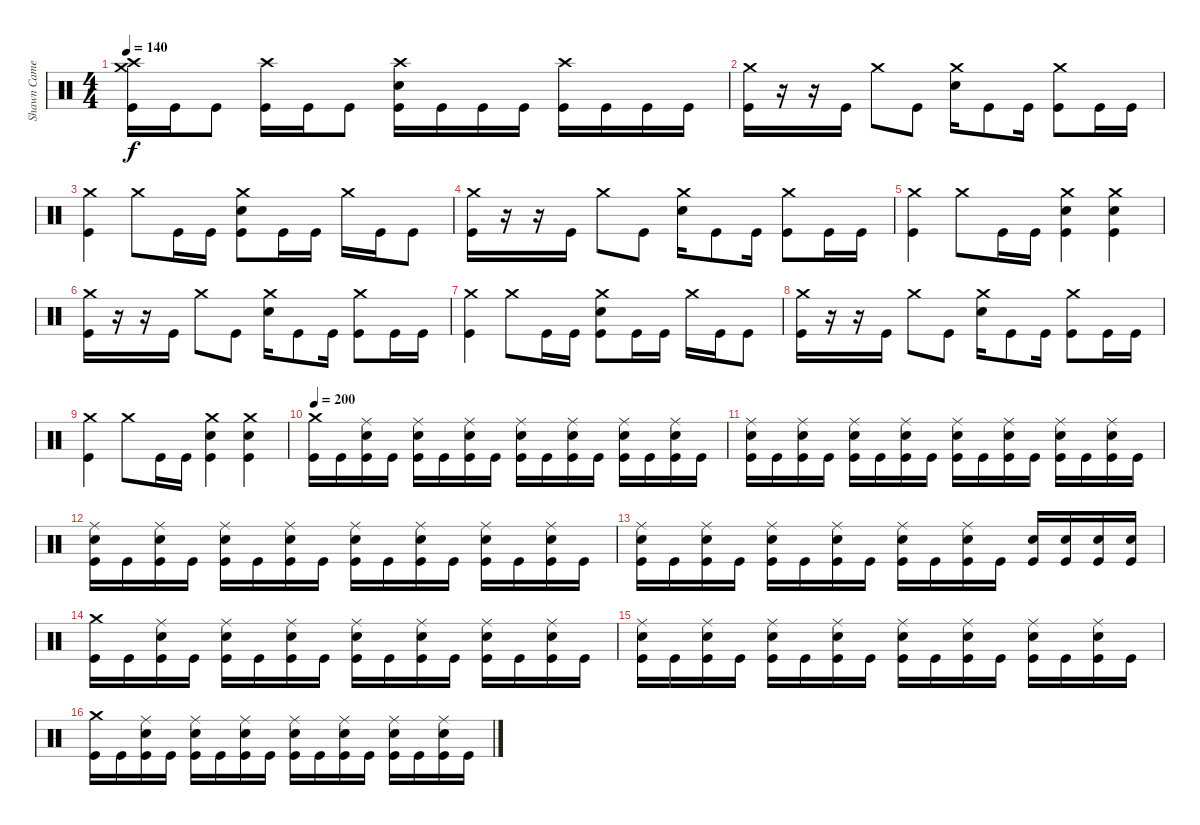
\track ("Shawn Cameron" "Shawn Came") {instrument percussion}
\staff {score}
\articulation defaults
\ts (4 4)
\tempo 140
\clef neutral
\ks c
("Crash medium (hit)" "Crash high (hit)" "Kick (hit)").16{dy f} "Kick (hit)".16 "Kick (hit)".8 ("Crash high (hit)" "Kick (hit)").16 "Kick (hit)".16 "Kick (hit)".8 ("Crash high (hit)" "Snare (hit) 2" "Kick (hit)").16 "Kick (hit)".16 "Kick (hit)".16 "Kick (hit)".16 ("Crash high (hit)" "Kick (hit)").16 "Kick (hit)".16 "Kick (hit)".16 "Kick (hit)".16 |
("Crash medium (hit)" "Kick (hit)").16 r.16 r.16 "Kick (hit)".16 "Crash medium (hit)".8 "Kick (hit)".8 ("Crash medium (hit)" "Snare (hit) 2").16 "Kick (hit)".8 "Kick (hit)".16 ("Crash medium (hit)" "Kick (hit)").8 "Kick (hit)".16 "Kick (hit)".16 |
("Crash medium (hit)" "Kick (hit)").4 "Crash medium (hit)".8 "Kick (hit)".16 "Kick (hit)".16 ("Crash medium (hit)" "Snare (hit) 2" "Kick (hit)").8 "Kick (hit)".16 "Kick (hit)".16 "Crash medium (hit)".16 "Kick (hit)".16 "Kick (hit)".8 |
("Crash medium (hit)" "Kick (hit)").16 r.16 r.16 "Kick (hit)".16 "Crash medium (hit)".8 "Kick (hit)".8 ("Crash medium (hit)" "Snare (hit) 2").16 "Kick (hit)".8 "Kick (hit)".16 ("Crash medium (hit)" "Kick (hit)").8 "Kick (hit)".16 "Kick (hit)".16 |
("Crash medium (hit)" "Kick (hit)").4 "Crash medium (hit)".8 "Kick (hit)".16 "Kick (hit)".16 ("Crash medium (hit)" "Snare (hit) 2" "Kick (hit)").4 ("Crash medium (hit)" "Snare (hit) 2" "Kick (hit)").4 |
("Crash medium (hit)" "Kick (hit)").16 r.16 r.16 "Kick (hit)".16 "Crash medium (hit)".8 "Kick (hit)".8 ("Crash medium (hit)" "Snare (hit) 2").16 "Kick (hit)".8 "Kick (hit)".16 ("Crash medium (hit)" "Kick (hit)").8 "Kick (hit)".16 "Kick (hit)".16 |
("Crash medium (hit)" "Kick (hit)").4 "Crash medium (hit)".8 "Kick (hit)".16 "Kick (hit)".16 ("Crash medium (hit)" "Snare (hit) 2" "Kick (hit)").8 "Kick (hit)".16 "Kick (hit)".16 "Crash medium (hit)".16 "Kick (hit)".16 "Kick (hit)".8 |
("Crash medium (hit)" "Kick (hit)").16 r.16 r.16 "Kick (hit)".16 "Crash medium (hit)".8 "Kick (hit)".8 ("Crash medium (hit)" "Snare (hit) 2").16 "Kick (hit)".8 "Kick (hit)".16 ("Crash medium (hit)" "Kick (hit)").8 "Kick (hit)".16 "Kick (hit)".16 |
("Crash medium (hit)" "Kick (hit)").4 "Crash medium (hit)".8 "Kick (hit)".16 "Kick (hit)".16 ("Crash medium (hit)" "Snare (hit) 2" "Kick (hit)").4 ("Crash medium (hit)" "Snare (hit) 2" "Kick (hit)").4 |
\tempo 200
("Crash medium (hit)" "Kick (hit)").16 "Kick (hit)".16 ("Ride (middle)" "Snare (hit) 2" "Kick (hit)").16 "Kick (hit)".16 ("Ride (middle)" "Snare (hit) 2" "Kick (hit)").16 "Kick (hit)".16 ("Ride (middle)" "Snare (hit) 2" "Kick (hit)").16 "Kick (hit)".16 ("Ride (middle)" "Snare (hit) 2" "Kick (hit)").16 "Kick (hit)".16 ("Ride (middle)" "Snare (hit) 2" "Kick (hit)").16 "Kick (hit)".16 ("Ride (middle)" "Snare (hit) 2" "Kick (hit)").16 "Kick (hit)".16 ("Ride (middle)" "Snare (hit) 2" "Kick (hit)").16 "Kick (hit)".16 |
("Ride (middle)" "Snare (hit) 2" "Kick (hit)").16 "Kick (hit)".16 ("Ride (middle)" "Snare (hit) 2" "Kick (hit)").16 "Kick (hit)".16 ("Ride (middle)" "Snare (hit) 2" "Kick (hit)").16 "Kick (hit)".16 ("Ride (middle)" "Snare (hit) 2" "Kick (hit)").16 "Kick (hit)".16 ("Ride (middle)" "Snare (hit) 2" "Kick (hit)").16 "Kick (hit)".16 ("Ride (middle)" "Snare (hit) 2" "Kick (hit)").16 "Kick (hit)".16 ("Ride (middle)" "Snare (hit) 2" "Kick (hit)").16 "Kick (hit)".16 ("Ride (middle)" "Snare (hit) 2" "Kick (hit)").16 "Kick (hit)".16 |
("Ride (middle)" "Snare (hit) 2" "Kick (hit)").16 "Kick (hit)".16 ("Ride (middle)" "Snare (hit) 2" "Kick (hit)").16 "Kick (hit)".16 ("Ride (middle)" "Snare (hit) 2" "Kick (hit)").16 "Kick (hit)".16 ("Ride (middle)" "Snare (hit) 2" "Kick (hit)").16 "Kick (hit)".16 ("Ride (middle)" "Snare (hit) 2" "Kick (hit)").16 "Kick (hit)".16 ("Ride (middle)" "Snare (hit) 2" "Kick (hit)").16 "Kick (hit)".16 ("Ride (middle)" "Snare (hit) 2" "Kick (hit)").16 "Kick (hit)".16 ("Ride (middle)" "Snare (hit) 2" "Kick (hit)").16 "Kick (hit)".16 |
("Ride (middle)" "Snare (hit) 2" "Kick (hit)").16 "Kick (hit)".16 ("Ride (middle)" "Snare (hit) 2" "Kick (hit)").16 "Kick (hit)".16 ("Ride (middle)" "Snare (hit) 2" "Kick (hit)").16 "Kick (hit)".16 ("Ride (middle)" "Snare (hit) 2" "Kick (hit)").16 "Kick (hit)".16 ("Ride (middle)" "Snare (hit) 2" "Kick (hit)").16 "Kick (hit)".16 ("Ride (middle)" "Snare (hit) 2" "Kick (hit)").16 "Kick (hit)".16 ("Snare (hit) 2" "Kick (hit)").16 ("Snare (hit) 2" "Kick (hit)").16 ("Snare (hit) 2" "Kick (hit)").16 ("Snare (hit) 2" "Kick (hit)").16 |
("Crash medium (hit)" "Kick (hit)").16 "Kick (hit)".16 ("Ride (middle)" "Snare (hit) 2" "Kick (hit)").16 "Kick (hit)".16 ("Ride (middle)" "Snare (hit) 2" "Kick (hit)").16 "Kick (hit)".16 ("Ride (middle)" "Snare (hit) 2" "Kick (hit)").16 "Kick (hit)".16 ("Ride (middle)" "Snare (hit) 2" "Kick (hit)").16 "Kick (hit)".16 ("Ride (middle)" "Snare (hit) 2" "Kick (hit)").16 "Kick (hit)".16 ("Ride (middle)" "Snare (hit) 2" "Kick (hit)").16 "Kick (hit)".16 ("Ride (middle)" "Snare (hit) 2" "Kick (hit)").16 "Kick (hit)".16 |
("Ride (middle)" "Snare (hit) 2" "Kick (hit)").16 "Kick (hit)".16 ("Ride (middle)" "Snare (hit) 2" "Kick (hit)").16 "Kick (hit)".16 ("Ride (middle)" "Snare (hit) 2" "Kick (hit)").16 "Kick (hit)".16 ("Ride (middle)" "Snare (hit) 2" "Kick (hit)").16 "Kick (hit)".16 ("Ride (middle)" "Snare (hit) 2" "Kick (hit)").16 "Kick (hit)".16 ("Ride (middle)" "Snare (hit) 2" "Kick (hit)").16 "Kick (hit)".16 ("Ride (middle)" "Snare (hit) 2" "Kick (hit)").16 "Kick (hit)".16 ("Ride (middle)" "Snare (hit) 2" "Kick (hit)").16 "Kick (hit)".16 |
("Crash medium (hit)" "Kick (hit)").16 "Kick (hit)".16 ("Ride (middle)" "Snare (hit) 2" "Kick (hit)").16 "Kick (hit)".16 ("Ride (middle)" "Snare (hit) 2" "Kick (hit)").16 "Kick (hit)".16 ("Ride (middle)" "Snare (hit) 2" "Kick (hit)").16 "Kick (hit)".16 ("Ride (middle)" "Snare (hit) 2" "Kick (hit)").16 "Kick (hit)".16 ("Ride (middle)" "Snare (hit) 2" "Kick (hit)").16 "Kick (hit)".16 ("Ride (middle)" "Snare (hit) 2" "Kick (hit)").16 "Kick (hit)".16 ("Ride (middle)" "Snare (hit) 2" "Kick (hit)").16 "Kick (hit)".16
